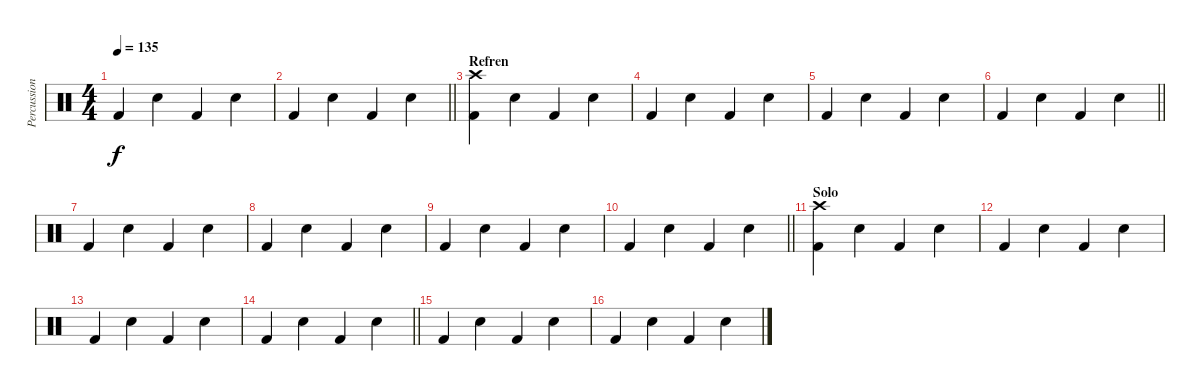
\track ("Percussion" "Percussion") {instrument percussion}
\staff
\articulation defaults
\ts (4 4)
\tempo 135
\clef neutral
\ks c "Kick (hit) 2".4{dy f} "Snare (hit) 2".4 "Kick (hit) 2".4 "Snare (hit) 2".4
|
\barLineRight lightlight "Kick (hit) 2".4 "Snare (hit) 2".4 "Kick (hit) 2".4 "Snare (hit) 2".4
|
\section ("" "Refren")
("Crash high (hit)" "Kick (hit) 2").4 "Snare (hit) 2".4 "Kick (hit) 2".4 "Snare (hit) 2".4 |
"Kick (hit) 2".4 "Snare (hit) 2".4 "Kick (hit) 2".4 "Snare (hit) 2".4 |
"Kick (hit) 2".4 "Snare (hit) 2".4 "Kick (hit) 2".4 "Snare (hit) 2".4 |
\barLineRight lightlight "Kick (hit) 2".4 "Snare (hit) 2".4 "Kick (hit) 2".4 "Snare (hit) 2".4
|
"Kick (hit) 2".4 "Snare (hit) 2".4 "Kick (hit) 2".4 "Snare (hit) 2".4 |
"Kick (hit) 2".4 "Snare (hit) 2".4 "Kick (hit) 2".4 "Snare (hit) 2".4 |
"Kick (hit) 2".4 "Snare (hit) 2".4 "Kick (hit) 2".4 "Snare (hit) 2".4 |
\barLineRight lightlight "Kick (hit) 2".4 "Snare (hit) 2".4 "Kick (hit) 2".4 "Snare (hit) 2".4
|
\section ("" "Solo")
("Crash high (hit)" "Kick (hit) 2").4 "Snare (hit) 2".4 "Kick (hit) 2".4 "Snare (hit) 2".4 |
"Kick (hit) 2".4 "Snare (hit) 2".4 "Kick (hit) 2".4 "Snare (hit) 2".4 |
"Kick (hit) 2".4 "Snare (hit) 2".4 "Kick (hit) 2".4 "Snare (hit) 2".4 |
\barLineRight lightlight "Kick (hit) 2".4 "Snare (hit) 2".4 "Kick (hit) 2".4 "Snare (hit) 2".4
|
"Kick (hit) 2".4 "Snare (hit) 2".4 "Kick (hit) 2".4 "Snare (hit) 2".4 |
"Kick (hit) 2".4 "Snare (hit) 2".4 "Kick (hit) 2".4 "Snare (hit) 2".4
